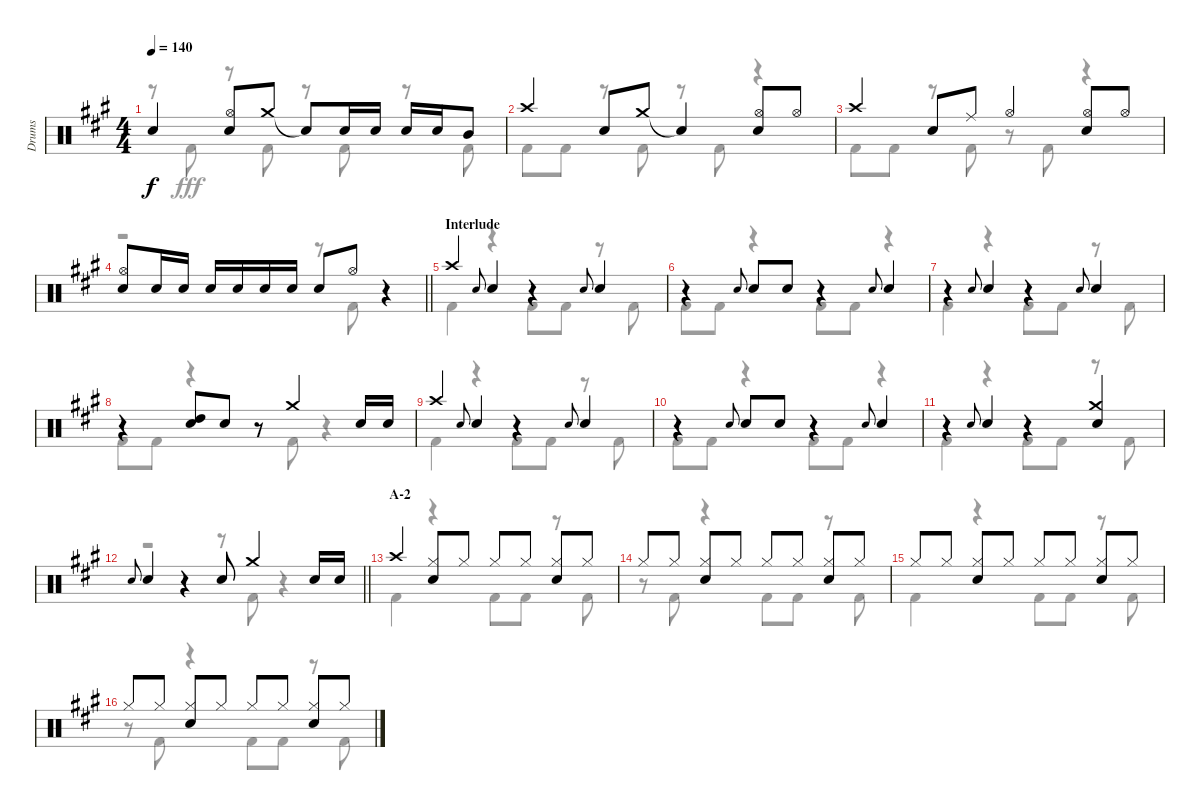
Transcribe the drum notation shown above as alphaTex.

\track ("Drums" "Drums") {instrument percussion}
\staff {score}
\articulation defaults
\voice
\ts (4 4)
\tempo 140
\clef neutral
\ks a "Snare (hit)"{t}.4{dy f}
("Hi-Hat (open)" "Snare (hit) 2").8 "Crash medium (hit)".8 "Snare (hit)"{t}.8 "Snare (hit) 2".16 "Snare (hit) 2".16 "Snare (hit) 2".16 "Snare (hit) 2".16 "Mid Tom (hit)".8 |
"Crash high (hit)".4 "Snare (hit) 2".8 "Crash medium (hit)".8 "Snare (hit)"{t}.4 ("Hi-Hat (open)" "Snare (hit) 2").8 "Hi-Hat (open)".8 |
"Crash high (hit)".4 "Snare (hit) 2".8 "Ride (middle)".8 "Hi-Hat (open)".4 ("Hi-Hat (open)" "Snare (hit) 2").8 "Hi-Hat (open)".8 |
\barLineRight lightlight
("Hi-Hat (open)" "Snare (hit) 2").8 "Snare (hit) 2".16 "Snare (hit) 2".16 "Snare (hit) 2".16 "Snare (hit) 2".16 "Snare (hit) 2".16 "Snare (hit) 2".16 "Snare (hit) 2".8 "Hi-Hat (open)".8 r.4 |
\section ("" "Interlude")
"Crash high (hit)".4 "Snare (hit) 2".8{gr onbeat} "Snare (hit) 2".4 r.4 "Snare (hit) 2".8{gr onbeat} "Snare (hit) 2".4 |
r.4 "Snare (hit) 2".8{gr onbeat} "Snare (hit) 2".8 "Snare (hit) 2".8 r.4 "Snare (hit) 2".8{gr onbeat} "Snare (hit) 2".4 |
r.4 "Snare (hit) 2".8{gr onbeat} "Snare (hit) 2".4 r.4 "Snare (hit) 2".8{gr onbeat} "Snare (hit) 2".4 |
r.4 ("High Tom (hit)" "Snare (hit) 2").8 "Snare (hit) 2".8 r.8 "Crash medium (hit)".4 "Snare (hit) 2".16 "Snare (hit) 2".16 |
"Crash high (hit)".4 "Snare (hit) 2".8{gr onbeat} "Snare (hit) 2".4 r.4 "Snare (hit) 2".8{gr onbeat} "Snare (hit) 2".4 |
r.4 "Snare (hit) 2".8{gr onbeat} "Snare (hit) 2".8 "Snare (hit) 2".8 r.4 "Snare (hit) 2".8{gr onbeat} "Snare (hit) 2".4 |
r.4 "Snare (hit) 2".8{gr onbeat} "Snare (hit) 2".4 r.4 ("Crash medium (hit)" "Snare (hit) 2").4 |
\barLineRight lightlight "Snare (hit) 2".8{gr onbeat} "Snare (hit) 2".4
r.4 "Snare (hit) 2".8 "Crash medium (hit)".4 "Snare (hit) 2".16 "Snare (hit) 2".16 |
\section ("" "A-2")
"Crash high (hit)".4 ("Hi-Hat (closed)" "Snare (hit) 2").8 "Hi-Hat (closed)".8 "Hi-Hat (closed)".8 "Hi-Hat (closed)".8 ("Hi-Hat (closed)" "Snare (hit) 2").8 "Hi-Hat (closed)".8 |
"Hi-Hat (closed)".8 "Hi-Hat (closed)".8 ("Hi-Hat (closed)" "Snare (hit) 2").8 "Hi-Hat (closed)".8 "Hi-Hat (closed)".8 "Hi-Hat (closed)".8 ("Hi-Hat (closed)" "Snare (hit) 2").8 "Hi-Hat (closed)".8 |
"Hi-Hat (closed)".8 "Hi-Hat (closed)".8 ("Hi-Hat (closed)" "Snare (hit) 2").8 "Hi-Hat (closed)".8 "Hi-Hat (closed)".8 "Hi-Hat (closed)".8 ("Hi-Hat (closed)" "Snare (hit) 2").8 "Hi-Hat (closed)".8 |
"Hi-Hat (closed)".8 "Hi-Hat (closed)".8 ("Hi-Hat (closed)" "Snare (hit) 2").8 "Hi-Hat (closed)".8 "Hi-Hat (closed)".8 "Hi-Hat (closed)".8 ("Hi-Hat (closed)" "Snare (hit) 2").8 "Hi-Hat (closed)".8
\voice
\clef neutral
\ottava regular
\simile none
\ks a
r.8{dy fff} "Kick (hit) 2".8 r.8 "Kick (hit) 2".8 r.8 "Kick (hit) 2".8 r.8 "Kick (hit) 2".8 |
"Kick (hit) 2".8 "Kick (hit) 2".8 r.8 "Kick (hit) 2".8 r.8 "Kick (hit) 2".8 r.4 |
"Kick (hit) 2".8 "Kick (hit) 2".8 r.8 "Kick (hit) 2".8 r.8 "Kick (hit) 2".8 r.4 |
\barLineRight lightlight
r.2 r.8 "Kick (hit) 2".8 r.4 |
"Kick (hit) 2".4 r.4 "Kick (hit) 2".8 "Kick (hit) 2".8 r.8 "Kick (hit) 2".8 |
"Kick (hit) 2".8 "Kick (hit) 2".8 r.4 "Kick (hit) 2".8 "Kick (hit) 2".8 r.4 |
"Kick (hit) 2".4 r.4 "Kick (hit) 2".8 "Kick (hit) 2".8 r.8 "Kick (hit) 2".8 |
"Kick (hit) 2".8 "Kick (hit) 2".8 r.4 r.8 "Kick (hit) 2".8 r.4 |
"Kick (hit) 2".4 r.4 "Kick (hit) 2".8 "Kick (hit) 2".8 r.8 "Kick (hit) 2".8 |
"Kick (hit) 2".8 "Kick (hit) 2".8 r.4 "Kick (hit) 2".8 "Kick (hit) 2".8 r.4 |
"Kick (hit) 2".4 r.4 "Kick (hit) 2".8 "Kick (hit) 2".8 r.8 "Kick (hit) 2".8 |
\barLineRight lightlight
r.2 r.8 "Kick (hit) 2".8 r.4 |
"Kick (hit) 2".4 r.4 "Kick (hit) 2".8 "Kick (hit) 2".8 r.8 "Kick (hit) 2".8 |
r.8 "Kick (hit) 2".8 r.4 "Kick (hit) 2".8 "Kick (hit) 2".8 r.8 "Kick (hit) 2".8 |
"Kick (hit) 2".4 r.4 "Kick (hit) 2".8 "Kick (hit) 2".8 r.8 "Kick (hit) 2".8 |
r.8 "Kick (hit) 2".8 r.4 "Kick (hit) 2".8 "Kick (hit) 2".8 r.8 "Kick (hit) 2".8
